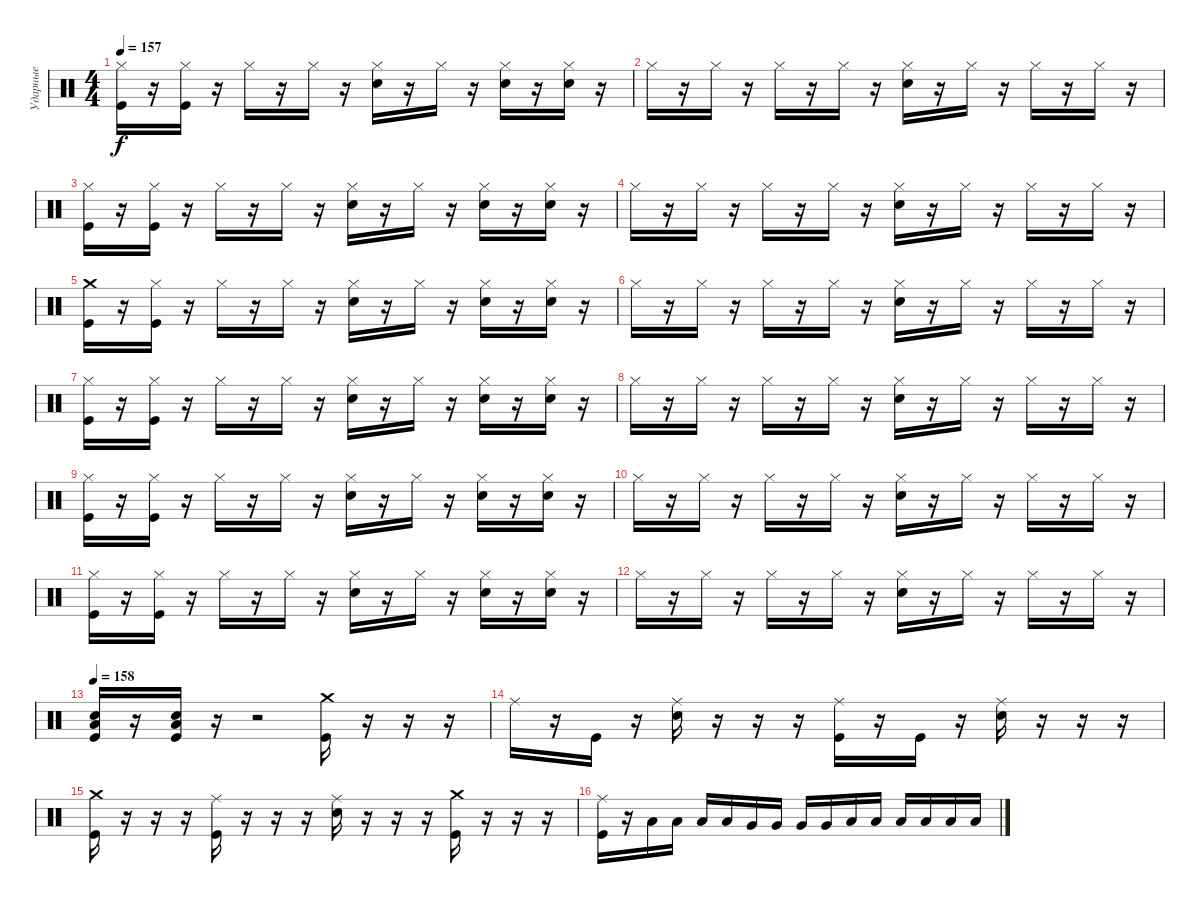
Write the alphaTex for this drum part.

\track ("Ударные" "Ударные") {instrument percussion}
\staff {score}
\articulation defaults
\ts (4 4)
\tempo 157
\clef neutral
\ks c
("Hi-Hat (closed)" "Kick (hit)").16{dy f} r.16 ("Hi-Hat (closed)" "Kick (hit)").16 r.16 "Hi-Hat (closed)".16 r.16 "Hi-Hat (closed)".16 r.16 ("Hi-Hat (closed)" "Electric Snare (hit)").16 r.16 "Hi-Hat (closed)".16 r.16 ("Hi-Hat (closed)" "Electric Snare (hit)").16 r.16 ("Hi-Hat (closed)" "Electric Snare (hit)").16 r.16 |
"Hi-Hat (closed)".16 r.16 "Hi-Hat (closed)".16 r.16 "Hi-Hat (closed)".16 r.16 "Hi-Hat (closed)".16 r.16 ("Hi-Hat (closed)" "Electric Snare (hit)").16 r.16 "Hi-Hat (closed)".16 r.16 "Hi-Hat (closed)".16 r.16 "Hi-Hat (closed)".16 r.16 |
("Hi-Hat (closed)" "Kick (hit)").16 r.16 ("Hi-Hat (closed)" "Kick (hit)").16 r.16 "Hi-Hat (closed)".16 r.16 "Hi-Hat (closed)".16 r.16 ("Hi-Hat (closed)" "Electric Snare (hit)").16 r.16 "Hi-Hat (closed)".16 r.16 ("Hi-Hat (closed)" "Electric Snare (hit)").16 r.16 ("Hi-Hat (closed)" "Electric Snare (hit)").16 r.16 |
"Hi-Hat (closed)".16 r.16 "Hi-Hat (closed)".16 r.16 "Hi-Hat (closed)".16 r.16 "Hi-Hat (closed)".16 r.16 ("Hi-Hat (closed)" "Electric Snare (hit)").16 r.16 "Hi-Hat (closed)".16 r.16 "Hi-Hat (closed)".16 r.16 "Hi-Hat (closed)".16 r.16 |
("Crash medium (hit)" "Kick (hit)").16 r.16 ("Hi-Hat (closed)" "Kick (hit)").16 r.16 "Hi-Hat (closed)".16 r.16 "Hi-Hat (closed)".16 r.16 ("Hi-Hat (closed)" "Electric Snare (hit)").16 r.16 "Hi-Hat (closed)".16 r.16 ("Hi-Hat (closed)" "Electric Snare (hit)").16 r.16 ("Hi-Hat (closed)" "Electric Snare (hit)").16 r.16 |
"Hi-Hat (closed)".16 r.16 "Hi-Hat (closed)".16 r.16 "Hi-Hat (closed)".16 r.16 "Hi-Hat (closed)".16 r.16 ("Hi-Hat (closed)" "Electric Snare (hit)").16 r.16 "Hi-Hat (closed)".16 r.16 "Hi-Hat (closed)".16 r.16 "Hi-Hat (closed)".16 r.16 |
("Hi-Hat (closed)" "Kick (hit)").16 r.16 ("Hi-Hat (closed)" "Kick (hit)").16 r.16 "Hi-Hat (closed)".16 r.16 "Hi-Hat (closed)".16 r.16 ("Hi-Hat (closed)" "Electric Snare (hit)").16 r.16 "Hi-Hat (closed)".16 r.16 ("Hi-Hat (closed)" "Electric Snare (hit)").16 r.16 ("Hi-Hat (closed)" "Electric Snare (hit)").16 r.16 |
"Hi-Hat (closed)".16 r.16 "Hi-Hat (closed)".16 r.16 "Hi-Hat (closed)".16 r.16 "Hi-Hat (closed)".16 r.16 ("Hi-Hat (closed)" "Electric Snare (hit)").16 r.16 "Hi-Hat (closed)".16 r.16 "Hi-Hat (closed)".16 r.16 "Hi-Hat (closed)".16 r.16 |
("Hi-Hat (closed)" "Kick (hit)").16 r.16 ("Hi-Hat (closed)" "Kick (hit)").16 r.16 "Hi-Hat (closed)".16 r.16 "Hi-Hat (closed)".16 r.16 ("Hi-Hat (closed)" "Electric Snare (hit)").16 r.16 "Hi-Hat (closed)".16 r.16 ("Hi-Hat (closed)" "Electric Snare (hit)").16 r.16 ("Hi-Hat (closed)" "Electric Snare (hit)").16 r.16 |
"Hi-Hat (closed)".16 r.16 "Hi-Hat (closed)".16 r.16 "Hi-Hat (closed)".16 r.16 "Hi-Hat (closed)".16 r.16 ("Hi-Hat (closed)" "Electric Snare (hit)").16 r.16 "Hi-Hat (closed)".16 r.16 "Hi-Hat (closed)".16 r.16 "Hi-Hat (closed)".16 r.16 |
("Hi-Hat (closed)" "Kick (hit)").16 r.16 ("Hi-Hat (closed)" "Kick (hit)").16 r.16 "Hi-Hat (closed)".16 r.16 "Hi-Hat (closed)".16 r.16 ("Hi-Hat (closed)" "Electric Snare (hit)").16 r.16 "Hi-Hat (closed)".16 r.16 ("Hi-Hat (closed)" "Electric Snare (hit)").16 r.16 ("Hi-Hat (closed)" "Electric Snare (hit)").16 r.16 |
"Hi-Hat (closed)".16 r.16 "Hi-Hat (closed)".16 r.16 "Hi-Hat (closed)".16 r.16 "Hi-Hat (closed)".16 r.16 ("Hi-Hat (closed)" "Electric Snare (hit)").16 r.16 "Hi-Hat (closed)".16 r.16 "Hi-Hat (closed)".16 r.16 "Hi-Hat (closed)".16 r.16 |
\tempo 158
("Low Floor Tom (hit)" "Electric Snare (hit)" "Kick (hit)").16 r.16 ("Low Floor Tom (hit)" "Electric Snare (hit)" "Kick (hit)").16 r.16 r.2 ("Crash medium (hit)" "Kick (hit)").16 r.16 r.16 r.16 |
"Ride (middle)".16 r.16 "Kick (hit)".16 r.16 ("Ride (middle)" "Electric Snare (hit)").16 r.16 r.16 r.16 ("Ride (middle)" "Kick (hit)").16 r.16 "Kick (hit)".16 r.16 ("Ride (middle)" "Electric Snare (hit)").16 r.16 r.16 r.16 |
("Crash medium (hit)" "Kick (hit)").16 r.16 r.16 r.16 ("Ride (middle)" "Kick (hit)").16 r.16 r.16 r.16 ("Ride (middle)" "Electric Snare (hit)").16 r.16 r.16 r.16 ("Crash medium (hit)" "Kick (hit)").16 r.16 r.16 r.16 |
("Ride (middle)" "Kick (hit)").16 r.16 "Low Tom (hit)".16 "Low Tom (hit)".16 "Low Tom (hit)".16 "Low Tom (hit)".16 "Very Low Tom (hit)".16 "Very Low Tom (hit)".16 "Very Low Tom (hit)".16 "Very Low Tom (hit)".16 "Low Floor Tom (hit)".16 "Low Floor Tom (hit)".16 "Low Floor Tom (hit)".16 "Low Floor Tom (hit)".16 "Low Floor Tom (hit)".16 "Low Floor Tom (hit)".16
